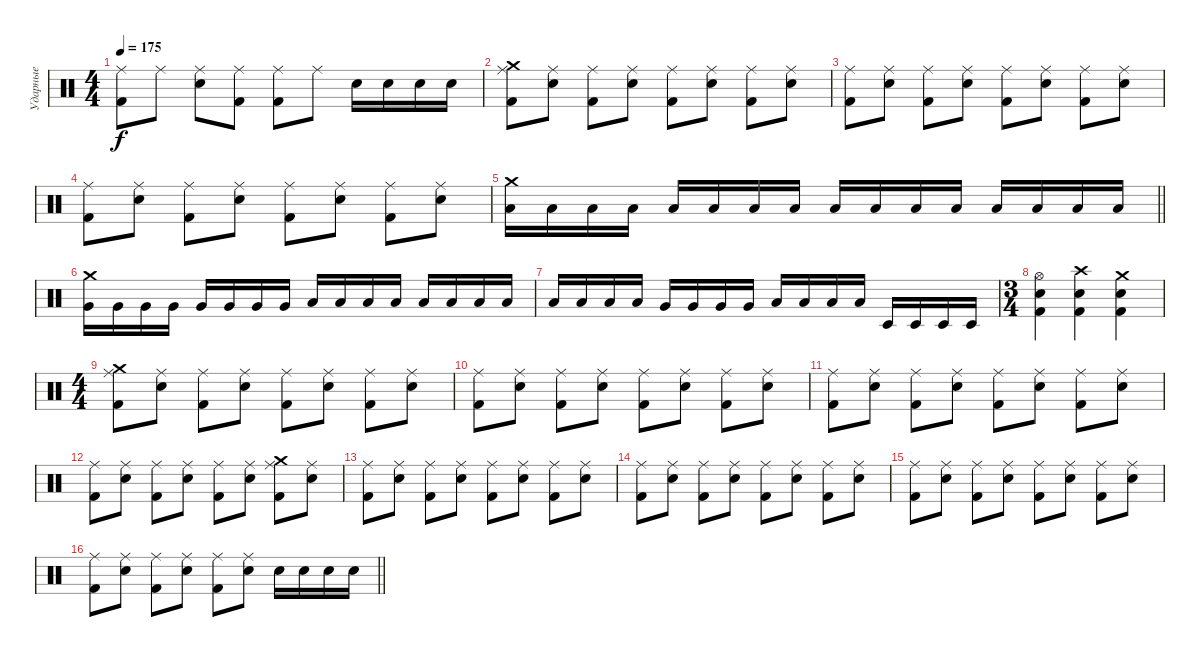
\track ("Ударные" "Ударные") {instrument percussion}
\staff {score}
\articulation defaults
\ts (4 4)
\tempo 175
\clef neutral
\ks c
("Ride (middle)" "Kick (hit) 2").8{dy f} "Ride (middle)".8 ("Ride (middle)" "Electric Snare (hit)").8 ("Ride (middle)" "Kick (hit) 2").8 ("Ride (middle)" "Kick (hit) 2").8 "Ride (middle)".8 "Electric Snare (hit)".16 "Electric Snare (hit)".16 "Electric Snare (hit)".16 "Electric Snare (hit)".16 |
("Ride (middle)" "Crash medium (hit)" "Kick (hit) 2").8 ("Ride (middle)" "Electric Snare (hit)").8 ("Ride (middle)" "Kick (hit) 2").8 ("Ride (middle)" "Electric Snare (hit)").8 ("Ride (middle)" "Kick (hit) 2").8 ("Ride (middle)" "Electric Snare (hit)").8 ("Ride (middle)" "Kick (hit) 2").8 ("Ride (middle)" "Electric Snare (hit)").8 |
("Ride (middle)" "Kick (hit) 2").8 ("Ride (middle)" "Electric Snare (hit)").8 ("Ride (middle)" "Kick (hit) 2").8 ("Ride (middle)" "Electric Snare (hit)").8 ("Ride (middle)" "Kick (hit) 2").8 ("Ride (middle)" "Electric Snare (hit)").8 ("Ride (middle)" "Kick (hit) 2").8 ("Ride (middle)" "Electric Snare (hit)").8 |
("Ride (middle)" "Kick (hit) 2").8 ("Ride (middle)" "Electric Snare (hit)").8 ("Ride (middle)" "Kick (hit) 2").8 ("Ride (middle)" "Electric Snare (hit)").8 ("Ride (middle)" "Kick (hit) 2").8 ("Ride (middle)" "Electric Snare (hit)").8 ("Ride (middle)" "Kick (hit) 2").8 ("Ride (middle)" "Electric Snare (hit)").8 |
\barLineRight lightlight
("Crash medium (hit)" "Low Floor Tom (hit)").16 "Low Floor Tom (hit)".16 "Low Floor Tom (hit)".16 "Low Floor Tom (hit)".16 "Low Floor Tom (hit)".16 "Low Floor Tom (hit)".16 "Low Floor Tom (hit)".16 "Low Floor Tom (hit)".16 "Low Tom (hit)".16 "Low Tom (hit)".16 "Low Tom (hit)".16 "Low Tom (hit)".16 "Low Tom (hit)".16 "Low Tom (hit)".16 "Low Tom (hit)".16 "Low Tom (hit)".16 |
("Crash medium (hit)" "Very Low Tom (hit)").16 "Very Low Tom (hit)".16 "Very Low Tom (hit)".16 "Very Low Tom (hit)".16 "Very Low Tom (hit)".16 "Very Low Tom (hit)".16 "Very Low Tom (hit)".16 "Very Low Tom (hit)".16 "Low Tom (hit)".16 "Low Tom (hit)".16 "Low Tom (hit)".16 "Low Tom (hit)".16 "Low Tom (hit)".16 "Low Tom (hit)".16 "Low Tom (hit)".16 "Low Tom (hit)".16 |
"Low Floor Tom (hit)".16 "Low Floor Tom (hit)".16 "Low Floor Tom (hit)".16 "Low Floor Tom (hit)".16 "Very Low Tom (hit)".16 "Very Low Tom (hit)".16 "Very Low Tom (hit)".16 "Very Low Tom (hit)".16 "Low Tom (hit)".16 "Low Tom (hit)".16 "Low Tom (hit)".16 "Low Tom (hit)".16 "Timbale low (hit)".16 "Timbale low (hit)".16 "Timbale low (hit)".16 "Timbale low (hit)".16 |
\ts (3 4)
("Hi-Hat (open)" "Electric Snare (hit)" "Kick (hit) 2").4 ("Crash high (hit)" "Electric Snare (hit)" "Kick (hit) 2").4 ("Crash medium (hit)" "Electric Snare (hit)" "Kick (hit) 2").4 |
\ts (4 4)
("Ride (middle)" "Crash medium (hit)" "Kick (hit) 2").8 ("Ride (middle)" "Electric Snare (hit)").8 ("Ride (middle)" "Kick (hit) 2").8 ("Ride (middle)" "Electric Snare (hit)").8 ("Ride (middle)" "Kick (hit) 2").8 ("Ride (middle)" "Electric Snare (hit)").8 ("Ride (middle)" "Kick (hit) 2").8 ("Ride (middle)" "Electric Snare (hit)").8 |
("Ride (middle)" "Kick (hit) 2").8 ("Ride (middle)" "Electric Snare (hit)").8 ("Ride (middle)" "Kick (hit) 2").8 ("Ride (middle)" "Electric Snare (hit)").8 ("Ride (middle)" "Kick (hit) 2").8 ("Ride (middle)" "Electric Snare (hit)").8 ("Ride (middle)" "Kick (hit) 2").8 ("Ride (middle)" "Electric Snare (hit)").8 |
("Ride (middle)" "Kick (hit) 2").8 ("Ride (middle)" "Electric Snare (hit)").8 ("Ride (middle)" "Kick (hit) 2").8 ("Ride (middle)" "Electric Snare (hit)").8 ("Ride (middle)" "Kick (hit) 2").8 ("Ride (middle)" "Electric Snare (hit)").8 ("Ride (middle)" "Kick (hit) 2").8 ("Ride (middle)" "Electric Snare (hit)").8 |
("Ride (middle)" "Kick (hit) 2").8 ("Ride (middle)" "Electric Snare (hit)").8 ("Ride (middle)" "Kick (hit) 2").8 ("Ride (middle)" "Electric Snare (hit)").8 ("Ride (middle)" "Kick (hit) 2").8 ("Ride (middle)" "Electric Snare (hit)").8 ("Ride (middle)" "Crash medium (hit)" "Kick (hit) 2").8 ("Ride (middle)" "Electric Snare (hit)").8 |
("Ride (middle)" "Kick (hit) 2").8 ("Ride (middle)" "Electric Snare (hit)").8 ("Ride (middle)" "Kick (hit) 2").8 ("Ride (middle)" "Electric Snare (hit)").8 ("Ride (middle)" "Kick (hit) 2").8 ("Ride (middle)" "Electric Snare (hit)").8 ("Ride (middle)" "Kick (hit) 2").8 ("Ride (middle)" "Electric Snare (hit)").8 |
("Ride (middle)" "Kick (hit) 2").8 ("Ride (middle)" "Electric Snare (hit)").8 ("Ride (middle)" "Kick (hit) 2").8 ("Ride (middle)" "Electric Snare (hit)").8 ("Ride (middle)" "Kick (hit) 2").8 ("Ride (middle)" "Electric Snare (hit)").8 ("Ride (middle)" "Kick (hit) 2").8 ("Ride (middle)" "Electric Snare (hit)").8 |
("Ride (middle)" "Kick (hit) 2").8 ("Ride (middle)" "Electric Snare (hit)").8 ("Ride (middle)" "Kick (hit) 2").8 ("Ride (middle)" "Electric Snare (hit)").8 ("Ride (middle)" "Kick (hit) 2").8 ("Ride (middle)" "Electric Snare (hit)").8 ("Ride (middle)" "Kick (hit) 2").8 ("Ride (middle)" "Electric Snare (hit)").8 |
\barLineRight lightlight
("Ride (middle)" "Kick (hit) 2").8 ("Ride (middle)" "Electric Snare (hit)").8 ("Ride (middle)" "Kick (hit) 2").8 ("Ride (middle)" "Electric Snare (hit)").8 ("Ride (middle)" "Kick (hit) 2").8 ("Ride (middle)" "Electric Snare (hit)").8 "Electric Snare (hit)".16 "Electric Snare (hit)".16 "Electric Snare (hit)".16 "Electric Snare (hit)".16
